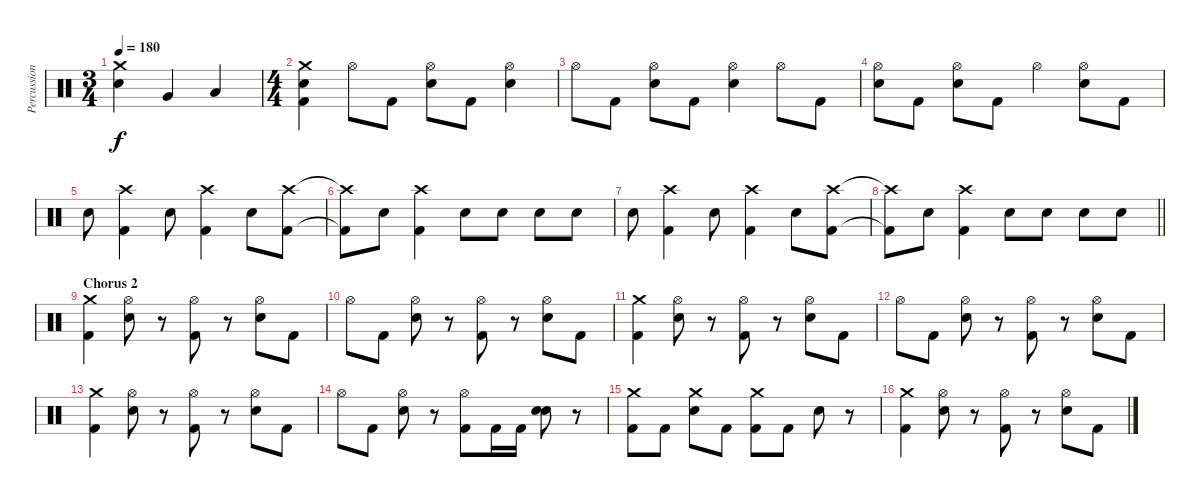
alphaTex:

\track ("Percussion" "Percussion") {instrument percussion}
\staff {score}
\articulation defaults
\ts (3 4)
\tempo 180
\clef neutral
\ks c
("Crash medium (hit)" "Snare (hit) 2").4{dy f} "Very Low Tom (hit)".4 "Low Floor Tom (hit)".4 |
\ts (4 4)
("Crash medium (hit)" "Snare (hit) 2" "Kick (hit) 2").4 "Hi-Hat (open)".8 "Kick (hit) 2".8 ("Hi-Hat (open)" "Snare (hit) 2").8 "Kick (hit) 2".8 ("Hi-Hat (open)" "Snare (hit) 2").4 |
"Hi-Hat (open)".8 "Kick (hit) 2".8 ("Hi-Hat (open)" "Snare (hit) 2").8 "Kick (hit) 2".8 ("Hi-Hat (open)" "Snare (hit) 2").4 "Hi-Hat (open)".8 "Kick (hit) 2".8 |
("Hi-Hat (open)" "Snare (hit) 2").8 "Kick (hit) 2".8 ("Hi-Hat (open)" "Snare (hit) 2").8 "Kick (hit) 2".8 "Hi-Hat (open)".4 ("Hi-Hat (open)" "Snare (hit) 2").8 "Kick (hit) 2".8 |
"Snare (hit) 2".8 ("Crash high (hit)" "Kick (hit) 2").4 "Snare (hit) 2".8 ("Crash high (hit)" "Kick (hit) 2").4 "Snare (hit) 2".8 ("Crash high (hit)" "Kick (hit) 2").8 |
("Crash high (hit)"{t} "Kick (hit) 2"{t}).8 "Snare (hit) 2".8 ("Crash high (hit)" "Kick (hit) 2").4 "Snare (hit) 2".8 "Snare (hit) 2".8 "Snare (hit) 2".8 "Snare (hit) 2".8 |
"Snare (hit) 2".8 ("Crash high (hit)" "Kick (hit) 2").4 "Snare (hit) 2".8 ("Crash high (hit)" "Kick (hit) 2").4 "Snare (hit) 2".8 ("Crash high (hit)" "Kick (hit) 2").8 |
\barLineRight lightlight
("Crash high (hit)"{t} "Kick (hit) 2"{t}).8 "Snare (hit) 2".8 ("Crash high (hit)" "Kick (hit) 2").4 "Snare (hit) 2".8 "Snare (hit) 2".8 "Snare (hit) 2".8 "Snare (hit) 2".8 |
\section ("" "Chorus 2")
("Crash medium (hit)" "Kick (hit) 2").4 ("Hi-Hat (open)" "Snare (hit) 2").8 r.8 ("Hi-Hat (open)" "Kick (hit) 2").8 r.8 ("Hi-Hat (open)" "Snare (hit) 2").8 "Kick (hit) 2".8 |
"Hi-Hat (open)".8 "Kick (hit) 2".8 ("Hi-Hat (open)" "Snare (hit) 2").8 r.8 ("Hi-Hat (open)" "Kick (hit) 2").8 r.8 ("Hi-Hat (open)" "Snare (hit) 2").8 "Kick (hit) 2".8 |
("Crash medium (hit)" "Kick (hit) 2").4 ("Hi-Hat (open)" "Snare (hit) 2").8 r.8 ("Hi-Hat (open)" "Kick (hit) 2").8 r.8 ("Hi-Hat (open)" "Snare (hit) 2").8 "Kick (hit) 2".8 |
"Hi-Hat (open)".8 "Kick (hit) 2".8 ("Hi-Hat (open)" "Snare (hit) 2").8 r.8 ("Hi-Hat (open)" "Kick (hit) 2").8 r.8 ("Hi-Hat (open)" "Snare (hit) 2").8 "Kick (hit) 2".8 |
("Crash medium (hit)" "Kick (hit) 2").4 ("Hi-Hat (open)" "Snare (hit) 2").8 r.8 ("Hi-Hat (open)" "Kick (hit) 2").8 r.8 ("Hi-Hat (open)" "Snare (hit) 2").8 "Kick (hit) 2".8 |
"Hi-Hat (open)".8 "Kick (hit) 2".8 ("Hi-Hat (open)" "Snare (hit) 2").8 r.8 ("Hi-Hat (open)" "Kick (hit) 2").8 "Kick (hit) 2".16 "Kick (hit) 2".16 ("Snare (hit) 2" "Snare (hit) 2").8 r.8 |
("Crash medium (hit)" "Kick (hit) 2").8 "Kick (hit) 2".8 ("Crash medium (hit)" "Snare (hit) 2").8 "Kick (hit) 2".8 ("Crash medium (hit)" "Kick (hit) 2").8 "Kick (hit) 2".8 "Snare (hit) 2".8 r.8 |
("Crash medium (hit)" "Kick (hit) 2").4 ("Hi-Hat (open)" "Snare (hit) 2").8 r.8 ("Hi-Hat (open)" "Kick (hit) 2").8 r.8 ("Hi-Hat (open)" "Snare (hit) 2").8 "Kick (hit) 2".8
